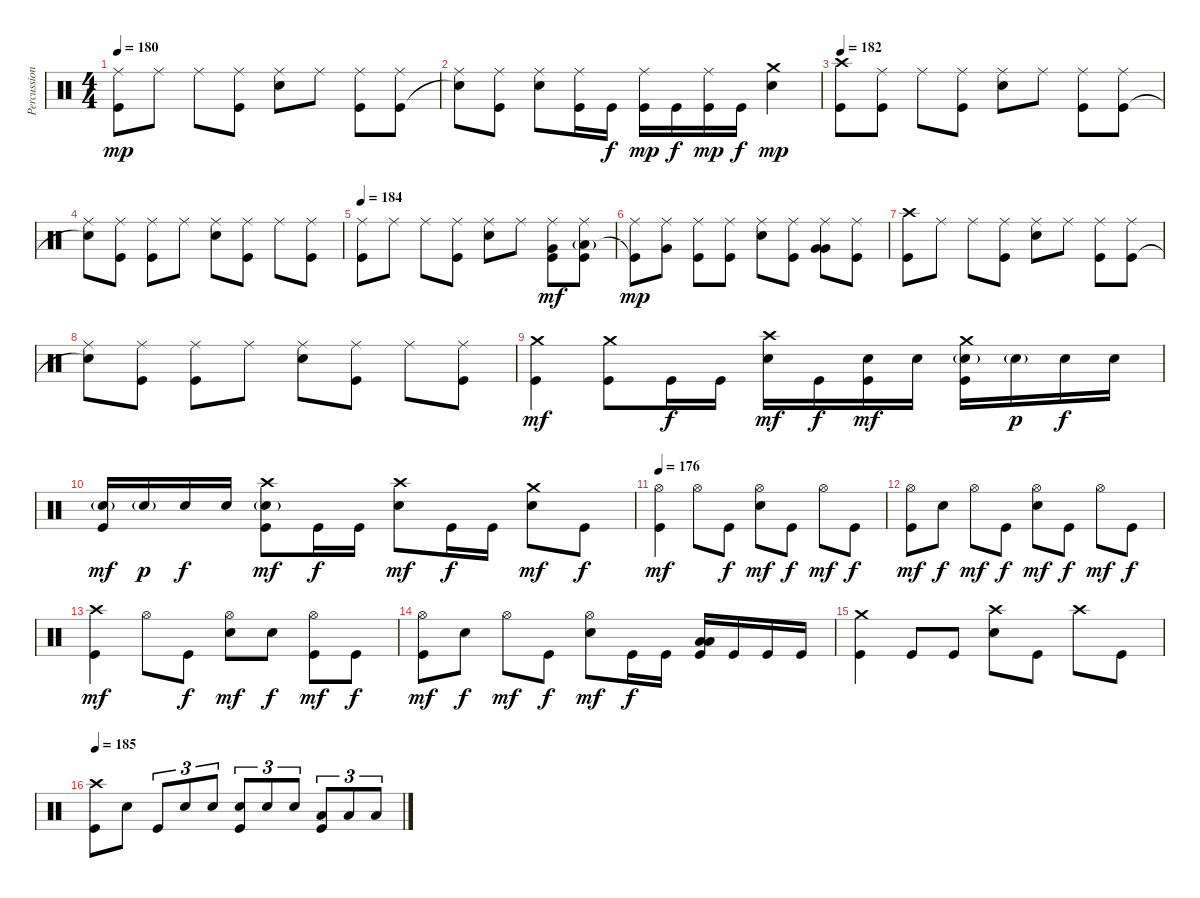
\track ("Percussion" "Percussion") {instrument percussion}
\staff {score}
\articulation defaults
\ts (4 4)
\tempo 180
\clef neutral
\ks c
("Ride (middle)" "Kick (hit)").8{dy mp} "Ride (middle)".8 "Ride (middle)".8 ("Ride (middle)" "Kick (hit)").8 ("Ride (middle)" "Electric Snare (hit)").8 "Ride (middle)".8 ("Ride (middle)" "Kick (hit)").8 ("Ride (middle)" "Kick (hit)").8 |
("Ride (middle)" "Snare (hit)"{t}).8 ("Ride (middle)" "Kick (hit)").8 ("Ride (middle)" "Electric Snare (hit)").8 ("Ride (middle)" "Kick (hit)").16 "Kick (hit)".16{dy f} ("Ride (middle)" "Kick (hit)").16{dy mp} "Kick (hit)".16{dy f} ("Ride (middle)" "Kick (hit)").16{dy mp} "Kick (hit)".16{dy f} ("Crash medium (hit)" "Electric Snare (hit)").4{dy mp} |
\tempo 182
("Crash high (hit)" "Kick (hit)").8 ("Ride (middle)" "Kick (hit)").8 "Ride (middle)".8 ("Ride (middle)" "Kick (hit)").8 ("Ride (middle)" "Electric Snare (hit)").8 "Ride (middle)".8 ("Ride (middle)" "Kick (hit)").8 ("Ride (middle)" "Kick (hit)").8 |
("Ride (middle)" "Snare (hit)"{t}).8 ("Ride (middle)" "Kick (hit)").8 ("Ride (middle)" "Kick (hit)").8 "Ride (middle)".8 ("Ride (middle)" "Electric Snare (hit)").8 ("Ride (middle)" "Kick (hit)").8 "Ride (middle)".8 ("Ride (middle)" "Kick (hit)").8 |
\tempo 184
("Ride (middle)" "Kick (hit)").8 "Ride (middle)".8 "Ride (middle)".8 ("Ride (middle)" "Kick (hit)").8 ("Ride (middle)" "Electric Snare (hit)").8 "Ride (middle)".8 ("Ride (middle)" "Very Low Tom (hit)" "Kick (hit)").8{dy mf} ("Ride (middle)" "Low Floor Tom (hit)"{g} "Kick (hit)").8 |
("Ride (middle)" "Kick (hit)"{t}).8{dy mp} ("Ride (middle)" "Very Low Tom (hit)").8 ("Ride (middle)" "Kick (hit)").8 ("Ride (middle)" "Kick (hit)").8 ("Ride (middle)" "Electric Snare (hit)").8 ("Ride (middle)" "Kick (hit)").8 ("Ride (middle)" "Very Low Tom (hit)" "Very Low Tom (hit)").8 ("Ride (middle)" "Kick (hit)").8 |
("Crash high (hit)" "Kick (hit)").8 "Ride (middle)".8 "Ride (middle)".8 ("Ride (middle)" "Kick (hit)").8 ("Ride (middle)" "Electric Snare (hit)").8 "Ride (middle)".8 ("Ride (middle)" "Kick (hit)").8 ("Ride (middle)" "Kick (hit)").8 |
("Ride (middle)" "Snare (hit)"{t}).8 ("Ride (middle)" "Kick (hit)").8 ("Ride (middle)" "Kick (hit)").8 "Ride (middle)".8 ("Ride (middle)" "Electric Snare (hit)").8 ("Ride (middle)" "Kick (hit)").8 "Ride (middle)".8 ("Ride (middle)" "Kick (hit)").8 |
("Crash medium (hit)" "Kick (hit)").4{dy mf} ("Crash medium (hit)" "Kick (hit)").8 "Kick (hit)".16{dy f} "Kick (hit)".16 ("Crash high (hit)" "Electric Snare (hit)").16{dy mf} "Kick (hit)".16{dy f} ("Electric Snare (hit)" "Kick (hit)").16{dy mf} "Electric Snare (hit)".16 ("Crash medium (hit)" "Electric Snare (hit)"{g} "Kick (hit)").16 "Electric Snare (hit)"{g}.16{dy p} "Electric Snare (hit)".16{dy f} "Electric Snare (hit)".16 |
("Electric Snare (hit)"{g} "Kick (hit)").16{dy mf} "Electric Snare (hit)"{g}.16{dy p} "Electric Snare (hit)".16{dy f} "Electric Snare (hit)".16 ("Crash high (hit)" "Electric Snare (hit)"{g} "Kick (hit)").8{dy mf} "Kick (hit)".16{dy f} "Kick (hit)".16 ("Crash high (hit)" "Electric Snare (hit)").8{dy mf} "Kick (hit)".16{dy f} "Kick (hit)".16 ("Crash medium (hit)" "Electric Snare (hit)").8{dy mf} "Kick (hit)".8{dy f} |
\tempo 176
("Hi-Hat (open)" "Kick (hit)").4{dy mf} "Hi-Hat (open)".8 "Kick (hit)".8{dy f} ("Hi-Hat (open)" "Electric Snare (hit)").8{dy mf} "Kick (hit)".8{dy f} "Hi-Hat (open)".8{dy mf} "Kick (hit)".8{dy f} |
("Hi-Hat (open)" "Kick (hit)").8{dy mf} "Electric Snare (hit)".8{dy f} "Hi-Hat (open)".8{dy mf} "Kick (hit)".8{dy f} ("Hi-Hat (open)" "Electric Snare (hit)").8{dy mf} "Kick (hit)".8{dy f} "Hi-Hat (open)".8{dy mf} "Kick (hit)".8{dy f} |
("Crash high (hit)" "Kick (hit)").4{dy mf} "Hi-Hat (open)".8 "Kick (hit)".8{dy f} ("Hi-Hat (open)" "Electric Snare (hit)").8{dy mf} "Electric Snare (hit)".8{dy f} ("Hi-Hat (open)" "Kick (hit)").8{dy mf} "Kick (hit)".8{dy f} |
("Hi-Hat (open)" "Kick (hit)").8{dy mf} "Electric Snare (hit)".8{dy f} "Hi-Hat (open)".8{dy mf} "Kick (hit)".8{dy f} ("Hi-Hat (open)" "Electric Snare (hit)").8{dy mf} "Kick (hit)".16{dy f} "Kick (hit)".16 ("Low Tom (hit)" "Low Tom (hit)" "Kick (hit)").16 "Kick (hit)".16 "Kick (hit)".16 "Kick (hit)".16 |
("Crash medium (hit)" "Kick (hit)").4 "Kick (hit)".8 "Kick (hit)".8 ("Crash high (hit)" "Electric Snare (hit)").8 "Kick (hit)".8 "Crash high (hit)".8 "Kick (hit)".8 |
\tempo 185
("Crash high (hit)" "Kick (hit)").8 "Electric Snare (hit)".8 "Kick (hit)".8{tu (3 2)} "Electric Snare (hit)".8{tu (3 2)} "Electric Snare (hit)".8{tu (3 2)} ("Electric Snare (hit)" "Kick (hit)").8{tu (3 2)} "Electric Snare (hit)".8{tu (3 2)} "Electric Snare (hit)".8{tu (3 2)} ("Low Tom (hit)" "Kick (hit)").8{tu (3 2)} "Low Tom (hit)".8{tu (3 2)} "Low Tom (hit)".8{tu (3 2)}
